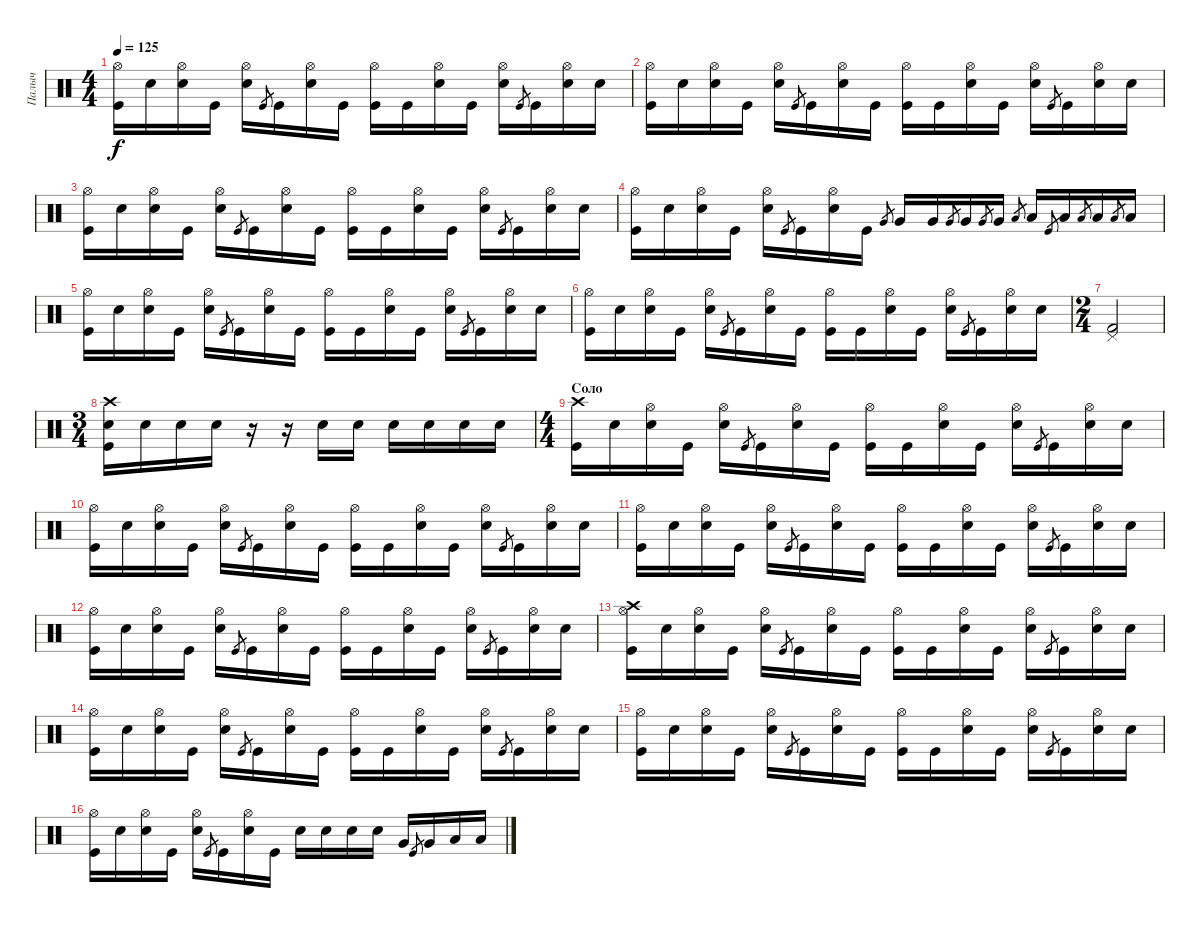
\track ("Палыч" "Палыч") {instrument percussion}
\staff {score}
\articulation defaults
\ts (4 4)
\tempo 125
\clef neutral
\ks c
("Kick (hit)" "Hi-Hat (open)").16{dy f} "Snare (hit)"{x}.16 ("Snare (hit) 2" "Hi-Hat (open)").16 "Kick (hit)".16 ("Electric Snare (hit)"{x} "Hi-Hat (open)").16 "Kick (hit)".8{gr} "Kick (hit)".16 ("Snare (hit) 2" "Hi-Hat (open)").16 "Kick (hit)"{x}.16 ("Kick (hit)" "Hi-Hat (open)").16 "Kick (hit)"{x}.16 ("Snare (hit) 2" "Hi-Hat (open)").16 "Kick (hit)".16 ("Snare (hit)"{x} "Hi-Hat (open)").16 "Kick (hit)".8{gr} "Kick (hit)".16 ("Snare (hit) 2" "Hi-Hat (open)").16 "Snare (hit)"{x}.16 |
("Kick (hit)" "Hi-Hat (open)").16 "Snare (hit)"{x}.16 ("Snare (hit) 2" "Hi-Hat (open)").16 "Kick (hit)".16 ("Electric Snare (hit)"{x} "Hi-Hat (open)").16 "Kick (hit)".8{gr} "Kick (hit)".16 ("Snare (hit) 2" "Hi-Hat (open)").16 "Kick (hit)"{x}.16 ("Kick (hit)" "Hi-Hat (open)").16 "Kick (hit)"{x}.16 ("Snare (hit) 2" "Hi-Hat (open)").16 "Kick (hit)".16 ("Snare (hit)"{x} "Hi-Hat (open)").16 "Kick (hit)".8{gr} "Kick (hit)".16 ("Snare (hit) 2" "Hi-Hat (open)").16 "Snare (hit)"{x}.16 |
("Kick (hit)" "Hi-Hat (open)").16 "Snare (hit)"{x}.16 ("Snare (hit) 2" "Hi-Hat (open)").16 "Kick (hit)".16 ("Electric Snare (hit)"{x} "Hi-Hat (open)").16 "Kick (hit)".8{gr} "Kick (hit)".16 ("Snare (hit) 2" "Hi-Hat (open)").16 "Kick (hit)"{x}.16 ("Kick (hit)" "Hi-Hat (open)").16 "Kick (hit)"{x}.16 ("Snare (hit) 2" "Hi-Hat (open)").16 "Kick (hit)".16 ("Snare (hit)"{x} "Hi-Hat (open)").16 "Kick (hit)".8{gr} "Kick (hit)".16 ("Snare (hit) 2" "Hi-Hat (open)").16 "Snare (hit)"{x}.16 |
("Kick (hit)" "Hi-Hat (open)").16 "Snare (hit)"{x}.16 ("Snare (hit) 2" "Hi-Hat (open)").16 "Kick (hit)".16 ("Electric Snare (hit)"{x} "Hi-Hat (open)").16 "Kick (hit)".8{gr} "Kick (hit)".16 ("Snare (hit) 2" "Hi-Hat (open)").16 "Kick (hit)"{x}.16 "Very Low Tom (hit)".8{gr} "Very Low Tom (hit)".16 "Very Low Tom (hit)".16 "Very Low Tom (hit)".8{gr} "Very Low Tom (hit)".16 "Very Low Tom (hit)".8{gr} "Very Low Tom (hit)".16 "Low Floor Tom (hit)".8{gr} "Low Floor Tom (hit)".16 "Kick (hit)".8{gr} "Low Floor Tom (hit)".16 "Low Floor Tom (hit)".8{gr} "Low Floor Tom (hit)".16 "Low Floor Tom (hit)".8{gr} "Low Floor Tom (hit)".16 |
("Kick (hit)" "Hi-Hat (open)").16 "Snare (hit)"{x}.16 ("Snare (hit) 2" "Hi-Hat (open)").16 "Kick (hit)".16 ("Electric Snare (hit)"{x} "Hi-Hat (open)").16 "Kick (hit)".8{gr} "Kick (hit)".16 ("Snare (hit) 2" "Hi-Hat (open)").16 "Kick (hit)"{x}.16 ("Kick (hit)" "Hi-Hat (open)").16 "Kick (hit)"{x}.16 ("Snare (hit) 2" "Hi-Hat (open)").16 "Kick (hit)".16 ("Snare (hit)"{x} "Hi-Hat (open)").16 "Kick (hit)".8{gr} "Kick (hit)".16 ("Snare (hit) 2" "Hi-Hat (open)").16 "Snare (hit)"{x}.16 |
("Kick (hit)" "Hi-Hat (open)").16 "Snare (hit)"{x}.16 ("Snare (hit) 2" "Hi-Hat (open)").16 "Kick (hit)".16 ("Electric Snare (hit)"{x} "Hi-Hat (open)").16 "Kick (hit)".8{gr} "Kick (hit)".16 ("Snare (hit) 2" "Hi-Hat (open)").16 "Kick (hit)"{x}.16 ("Kick (hit)" "Hi-Hat (open)").16 "Kick (hit)"{x}.16 ("Snare (hit) 2" "Hi-Hat (open)").16 "Kick (hit)".16 ("Snare (hit)"{x} "Hi-Hat (open)").16 "Kick (hit)".8{gr} "Kick (hit)".16 ("Snare (hit) 2" "Hi-Hat (open)").16 "Snare (hit)"{x}.16 |
\ts (2 4)
("Pedal Hi-Hat (hit)" "Kick (hit) 2").2 |
\ts (3 4)
("Crash high (hit)" "Kick (hit)" "Electric Snare (hit)").16 "Electric Snare (hit)".16 "Electric Snare (hit)".16 "Electric Snare (hit)".16 r.16 r.16 "Electric Snare (hit)".16 "Electric Snare (hit)".16 "Electric Snare (hit)".16 "Electric Snare (hit)".16 "Electric Snare (hit)".16 "Electric Snare (hit)".16 |
\ts (4 4)
\section ("" "Соло")
("Kick (hit)" "Crash high (hit)").16 "Snare (hit)"{x}.16 ("Snare (hit) 2" "Hi-Hat (open)").16 "Kick (hit)".16 ("Electric Snare (hit)"{x} "Hi-Hat (open)").16 "Kick (hit)".8{gr} "Kick (hit)".16 ("Snare (hit) 2" "Hi-Hat (open)").16 "Kick (hit)"{x}.16 ("Kick (hit)" "Hi-Hat (open)").16 "Kick (hit)"{x}.16 ("Snare (hit) 2" "Hi-Hat (open)").16 "Kick (hit)".16 ("Snare (hit)"{x} "Hi-Hat (open)").16 "Kick (hit)".8{gr} "Kick (hit)".16 ("Snare (hit) 2" "Hi-Hat (open)").16 "Snare (hit)"{x}.16 |
("Kick (hit)" "Hi-Hat (open)").16 "Snare (hit)"{x}.16 ("Snare (hit) 2" "Hi-Hat (open)").16 "Kick (hit)".16 ("Electric Snare (hit)"{x} "Hi-Hat (open)").16 "Kick (hit)".8{gr} "Kick (hit)".16 ("Snare (hit) 2" "Hi-Hat (open)").16 "Kick (hit)"{x}.16 ("Kick (hit)" "Hi-Hat (open)").16 "Kick (hit)"{x}.16 ("Snare (hit) 2" "Hi-Hat (open)").16 "Kick (hit)".16 ("Snare (hit)"{x} "Hi-Hat (open)").16 "Kick (hit)".8{gr} "Kick (hit)".16 ("Snare (hit) 2" "Hi-Hat (open)").16 "Snare (hit)"{x}.16 |
("Kick (hit)" "Hi-Hat (open)").16 "Snare (hit)"{x}.16 ("Snare (hit) 2" "Hi-Hat (open)").16 "Kick (hit)".16 ("Electric Snare (hit)"{x} "Hi-Hat (open)").16 "Kick (hit)".8{gr} "Kick (hit)".16 ("Snare (hit) 2" "Hi-Hat (open)").16 "Kick (hit)"{x}.16 ("Kick (hit)" "Hi-Hat (open)").16 "Kick (hit)"{x}.16 ("Snare (hit) 2" "Hi-Hat (open)").16 "Kick (hit)".16 ("Snare (hit)"{x} "Hi-Hat (open)").16 "Kick (hit)".8{gr} "Kick (hit)".16 ("Snare (hit) 2" "Hi-Hat (open)").16 "Snare (hit)"{x}.16 |
("Kick (hit)" "Hi-Hat (open)").16 "Snare (hit)"{x}.16 ("Snare (hit) 2" "Hi-Hat (open)").16 "Kick (hit)".16 ("Electric Snare (hit)"{x} "Hi-Hat (open)").16 "Kick (hit)".8{gr} "Kick (hit)".16 ("Snare (hit) 2" "Hi-Hat (open)").16 "Kick (hit)"{x}.16 ("Kick (hit)" "Hi-Hat (open)").16 "Kick (hit)"{x}.16 ("Snare (hit) 2" "Hi-Hat (open)").16 "Kick (hit)".16 ("Snare (hit)"{x} "Hi-Hat (open)").16 "Kick (hit)".8{gr} "Kick (hit)".16 ("Snare (hit) 2" "Hi-Hat (open)").16 "Snare (hit)"{x}.16 |
("Kick (hit)" "Crash high (hit)" "Hi-Hat (open)").16 "Snare (hit)"{x}.16 ("Snare (hit) 2" "Hi-Hat (open)").16 "Kick (hit)".16 ("Electric Snare (hit)"{x} "Hi-Hat (open)").16 "Kick (hit)".8{gr} "Kick (hit)".16 ("Snare (hit) 2" "Hi-Hat (open)").16 "Kick (hit)"{x}.16 ("Kick (hit)" "Hi-Hat (open)").16 "Kick (hit)"{x}.16 ("Snare (hit) 2" "Hi-Hat (open)").16 "Kick (hit)".16 ("Snare (hit)"{x} "Hi-Hat (open)").16 "Kick (hit)".8{gr} "Kick (hit)".16 ("Snare (hit) 2" "Hi-Hat (open)").16 "Snare (hit)"{x}.16 |
("Kick (hit)" "Hi-Hat (open)").16 "Snare (hit)"{x}.16 ("Snare (hit) 2" "Hi-Hat (open)").16 "Kick (hit)".16 ("Electric Snare (hit)"{x} "Hi-Hat (open)").16 "Kick (hit)".8{gr} "Kick (hit)".16 ("Snare (hit) 2" "Hi-Hat (open)").16 "Kick (hit)"{x}.16 ("Kick (hit)" "Hi-Hat (open)").16 "Kick (hit)"{x}.16 ("Snare (hit) 2" "Hi-Hat (open)").16 "Kick (hit)".16 ("Snare (hit)"{x} "Hi-Hat (open)").16 "Kick (hit)".8{gr} "Kick (hit)".16 ("Snare (hit) 2" "Hi-Hat (open)").16 "Snare (hit)"{x}.16 |
("Kick (hit)" "Hi-Hat (open)").16 "Snare (hit)"{x}.16 ("Snare (hit) 2" "Hi-Hat (open)").16 "Kick (hit)".16 ("Electric Snare (hit)"{x} "Hi-Hat (open)").16 "Kick (hit)".8{gr} "Kick (hit)".16 ("Snare (hit) 2" "Hi-Hat (open)").16 "Kick (hit)"{x}.16 ("Kick (hit)" "Hi-Hat (open)").16 "Kick (hit)"{x}.16 ("Snare (hit) 2" "Hi-Hat (open)").16 "Kick (hit)".16 ("Snare (hit)"{x} "Hi-Hat (open)").16 "Kick (hit)".8{gr} "Kick (hit)".16 ("Snare (hit) 2" "Hi-Hat (open)").16 "Snare (hit)"{x}.16 |
("Kick (hit)" "Hi-Hat (open)").16 "Snare (hit)"{x}.16 ("Snare (hit) 2" "Hi-Hat (open)").16 "Kick (hit)".16 ("Electric Snare (hit)"{x} "Hi-Hat (open)").16 "Kick (hit)".8{gr} "Kick (hit)".16 ("Snare (hit) 2" "Hi-Hat (open)").16 "Kick (hit)"{x}.16 "Snare (hit) 2".16 "Snare (hit) 2".16 "Snare (hit) 2".16 "Snare (hit) 2".16 "Very Low Tom (hit)".16 "Kick (hit)".8{gr} "Very Low Tom (hit)".16 "Low Floor Tom (hit)".16 "Low Floor Tom (hit)".16
